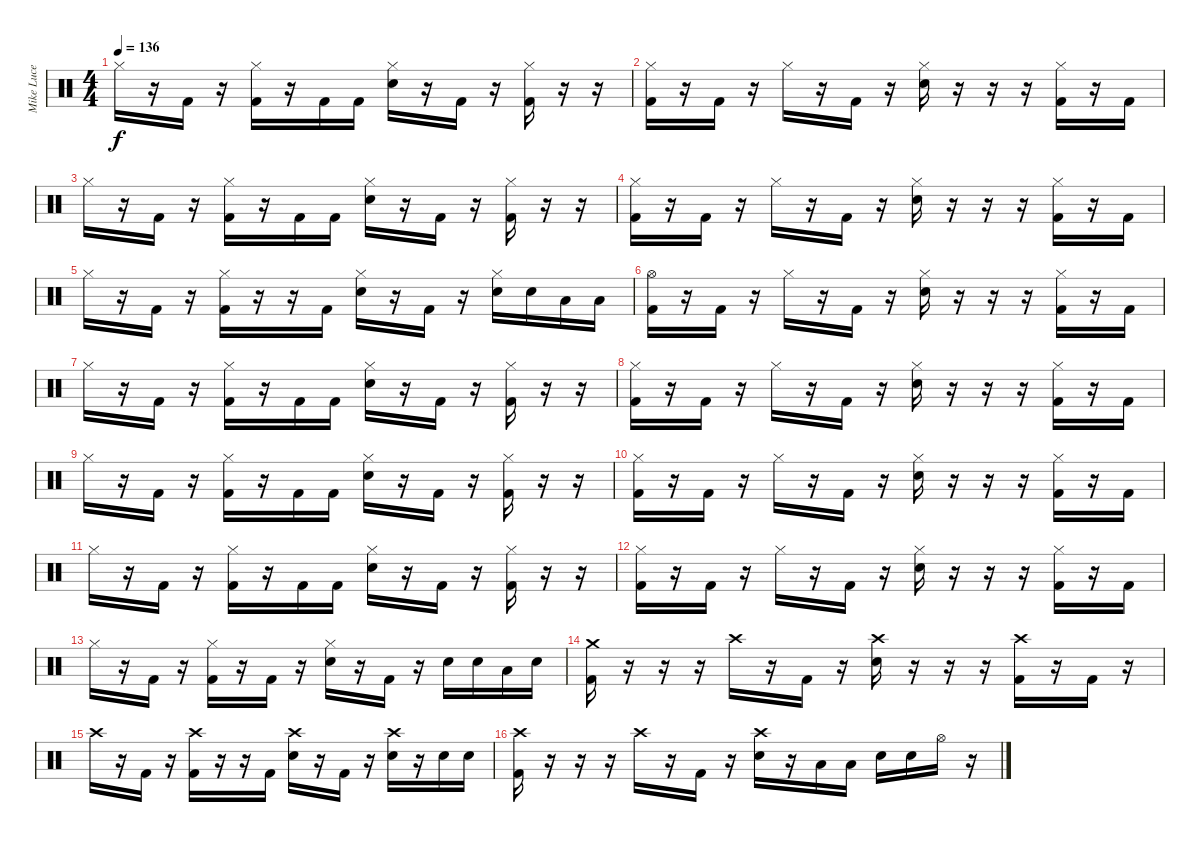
\track ("Mike Luce" "Mike Luce") {instrument percussion}
\staff {score}
\articulation defaults
\ts (4 4)
\tempo 136
\clef neutral
\ks c "Hi-Hat (closed)".16{dy f}
r.16 "Kick (hit) 2".16 r.16 ("Hi-Hat (closed)" "Kick (hit) 2").16 r.16 "Kick (hit) 2".16 "Kick (hit) 2".16 ("Hi-Hat (closed)" "Electric Snare (hit)").16 r.16 "Kick (hit) 2".16 r.16 ("Hi-Hat (closed)" "Kick (hit) 2").16 r.16 r.16 |
("Hi-Hat (closed)" "Kick (hit) 2").16 r.16 "Kick (hit) 2".16 r.16 "Hi-Hat (closed)".16 r.16 "Kick (hit) 2".16 r.16 ("Hi-Hat (closed)" "Electric Snare (hit)").16 r.16 r.16 r.16 ("Hi-Hat (closed)" "Kick (hit) 2").16 r.16 "Kick (hit) 2".16 |
"Hi-Hat (closed)".16 r.16 "Kick (hit) 2".16 r.16 ("Hi-Hat (closed)" "Kick (hit) 2").16 r.16 "Kick (hit) 2".16 "Kick (hit) 2".16 ("Hi-Hat (closed)" "Electric Snare (hit)").16 r.16 "Kick (hit) 2".16 r.16 ("Hi-Hat (closed)" "Kick (hit) 2").16 r.16 r.16 |
("Hi-Hat (closed)" "Kick (hit) 2").16 r.16 "Kick (hit) 2".16 r.16 "Hi-Hat (closed)".16 r.16 "Kick (hit) 2".16 r.16 ("Hi-Hat (closed)" "Electric Snare (hit)").16 r.16 r.16 r.16 ("Hi-Hat (closed)" "Kick (hit) 2").16 r.16 "Kick (hit) 2".16 |
"Hi-Hat (closed)".16 r.16 "Kick (hit) 2".16 r.16 ("Hi-Hat (closed)" "Kick (hit) 2").16 r.16 r.16 "Kick (hit) 2".16 ("Hi-Hat (closed)" "Electric Snare (hit)").16 r.16 "Kick (hit) 2".16 r.16 ("Hi-Hat (closed)" "Electric Snare (hit)").16 "Electric Snare (hit)".16 "Low Tom (hit)".16 "Low Tom (hit)".16 |
("Hi-Hat (open)" "Kick (hit) 2").16 r.16 "Kick (hit) 2".16 r.16 "Hi-Hat (closed)".16 r.16 "Kick (hit) 2".16 r.16 ("Hi-Hat (closed)" "Electric Snare (hit)").16 r.16 r.16 r.16 ("Hi-Hat (closed)" "Kick (hit) 2").16 r.16 "Kick (hit) 2".16 |
"Hi-Hat (closed)".16 r.16 "Kick (hit) 2".16 r.16 ("Hi-Hat (closed)" "Kick (hit) 2").16 r.16 "Kick (hit) 2".16 "Kick (hit) 2".16 ("Hi-Hat (closed)" "Electric Snare (hit)").16 r.16 "Kick (hit) 2".16 r.16 ("Hi-Hat (closed)" "Kick (hit) 2").16 r.16 r.16 |
("Hi-Hat (closed)" "Kick (hit) 2").16 r.16 "Kick (hit) 2".16 r.16 "Hi-Hat (closed)".16 r.16 "Kick (hit) 2".16 r.16 ("Hi-Hat (closed)" "Electric Snare (hit)").16 r.16 r.16 r.16 ("Hi-Hat (closed)" "Kick (hit) 2").16 r.16 "Kick (hit) 2".16 |
"Hi-Hat (closed)".16 r.16 "Kick (hit) 2".16 r.16 ("Hi-Hat (closed)" "Kick (hit) 2").16 r.16 "Kick (hit) 2".16 "Kick (hit) 2".16 ("Hi-Hat (closed)" "Electric Snare (hit)").16 r.16 "Kick (hit) 2".16 r.16 ("Hi-Hat (closed)" "Kick (hit) 2").16 r.16 r.16 |
("Hi-Hat (closed)" "Kick (hit) 2").16 r.16 "Kick (hit) 2".16 r.16 "Hi-Hat (closed)".16 r.16 "Kick (hit) 2".16 r.16 ("Hi-Hat (closed)" "Electric Snare (hit)").16 r.16 r.16 r.16 ("Hi-Hat (closed)" "Kick (hit) 2").16 r.16 "Kick (hit) 2".16 |
"Hi-Hat (closed)".16 r.16 "Kick (hit) 2".16 r.16 ("Hi-Hat (closed)" "Kick (hit) 2").16 r.16 "Kick (hit) 2".16 "Kick (hit) 2".16 ("Hi-Hat (closed)" "Electric Snare (hit)").16 r.16 "Kick (hit) 2".16 r.16 ("Hi-Hat (closed)" "Kick (hit) 2").16 r.16 r.16 |
("Hi-Hat (closed)" "Kick (hit) 2").16 r.16 "Kick (hit) 2".16 r.16 "Hi-Hat (closed)".16 r.16 "Kick (hit) 2".16 r.16 ("Hi-Hat (closed)" "Electric Snare (hit)").16 r.16 r.16 r.16 ("Hi-Hat (closed)" "Kick (hit) 2").16 r.16 "Kick (hit) 2".16 |
"Hi-Hat (closed)".16 r.16 "Kick (hit) 2".16 r.16 ("Hi-Hat (closed)" "Kick (hit) 2").16 r.16 "Kick (hit) 2".16 r.16 ("Hi-Hat (closed)" "Electric Snare (hit)").16 r.16 "Kick (hit) 2".16 r.16 "Electric Snare (hit)".16 "Electric Snare (hit)".16 "Low Tom (hit)".16 "Electric Snare (hit)".16 |
("Crash medium (hit)" "Kick (hit) 2").16 r.16 r.16 r.16 "Crash high (hit)".16 r.16 "Kick (hit) 2".16 r.16 ("Crash high (hit)" "Electric Snare (hit)").16 r.16 r.16 r.16 ("Crash high (hit)" "Kick (hit) 2").16 r.16 "Kick (hit) 2".16 r.16 |
"Crash high (hit)".16 r.16 "Kick (hit) 2".16 r.16 ("Crash high (hit)" "Kick (hit) 2").16 r.16 r.16 "Kick (hit) 2".16 ("Crash high (hit)" "Electric Snare (hit)").16 r.16 "Kick (hit) 2".16 r.16 ("Crash high (hit)" "Electric Snare (hit)").16 r.16 "Electric Snare (hit)".16 "Electric Snare (hit)".16 |
("Crash high (hit)" "Kick (hit) 2").16 r.16 r.16 r.16 "Crash high (hit)".16 r.16 "Kick (hit) 2".16 r.16 ("Crash high (hit)" "Electric Snare (hit)").16 r.16 "Low Tom (hit)".16 "Low Tom (hit)".16 "Electric Snare (hit)".16 "Electric Snare (hit)".16 "Hi-Hat (open)".16 r.16
